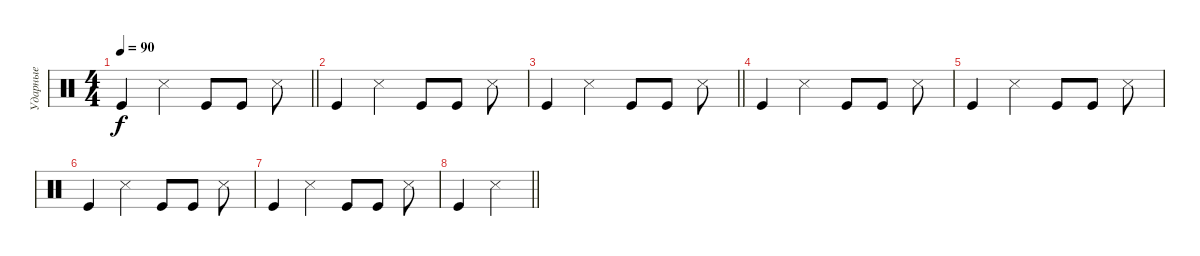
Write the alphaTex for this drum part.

\track ("Ударные" "Ударные") {instrument percussion}
\staff {score}
\articulation defaults
\ts (4 4)
\tempo 90
\clef neutral
\barLineRight lightlight
\ks c "Kick (hit)".4{dy f} "Snare (side stick) 3".4 "Kick (hit)".8 "Kick (hit)".8 "Snare (side stick) 3".8
|
"Kick (hit)".4 "Snare (side stick) 3".4 "Kick (hit)".8 "Kick (hit)".8 "Snare (side stick) 3".8 |
\barLineRight lightlight "Kick (hit)".4 "Snare (side stick) 3".4 "Kick (hit)".8 "Kick (hit)".8 "Snare (side stick) 3".8
|
"Kick (hit)".4 "Snare (side stick) 3".4 "Kick (hit)".8 "Kick (hit)".8 "Snare (side stick) 3".8 |
"Kick (hit)".4 "Snare (side stick) 3".4 "Kick (hit)".8 "Kick (hit)".8 "Snare (side stick) 3".8 |
"Kick (hit)".4 "Snare (side stick) 3".4 "Kick (hit)".8 "Kick (hit)".8 "Snare (side stick) 3".8 |
"Kick (hit)".4 "Snare (side stick) 3".4 "Kick (hit)".8 "Kick (hit)".8 "Snare (side stick) 3".8 |
\barLineRight lightlight "Kick (hit)".4 "Snare (side stick) 3".4
